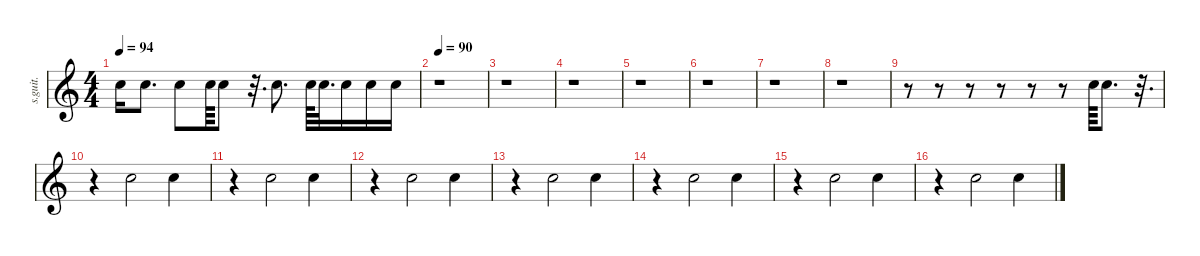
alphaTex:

\defaultSystemsLayout 4
\hideDynamics
\bracketExtendMode nobrackets
\track ("David Silveria (Snare Effect)" "s.guit.") {instrument percussion}
\staff {score}
\articulation defaults
\ts (4 4)
\tempo 94
\clef g2
\ks c "Hand Clap (hit)".16{dy f} "Hand Clap (hit)".8{d} "Hand Clap (hit)".8 "Hand Clap (hit)".64 "Hand Clap (hit)".8
r.32{d} "Hand Clap (hit)".8{d} "Hand Clap (hit)".64 "Hand Clap (hit)".32{d} "Hand Clap (hit)".16 "Hand Clap (hit)".16 "Hand Clap (hit)".16 |
\tempo 90
r.1 |
r.1 |
r.1 |
r.1 |
r.1 |
r.1 |
r.1 |
r.8 r.8 r.8 r.8 r.8 r.8 "Hand Clap (hit)".64 "Hand Clap (hit)".8{d} r.32{d} |
r.4 "Hand Clap (hit)".2 "Hand Clap (hit)".4 |
r.4 "Hand Clap (hit)".2 "Hand Clap (hit)".4 |
r.4 "Hand Clap (hit)".2 "Hand Clap (hit)".4 |
r.4 "Hand Clap (hit)".2 "Hand Clap (hit)".4 |
r.4 "Hand Clap (hit)".2 "Hand Clap (hit)".4 |
r.4 "Hand Clap (hit)".2 "Hand Clap (hit)".4 |
r.4 "Hand Clap (hit)".2 "Hand Clap (hit)".4
